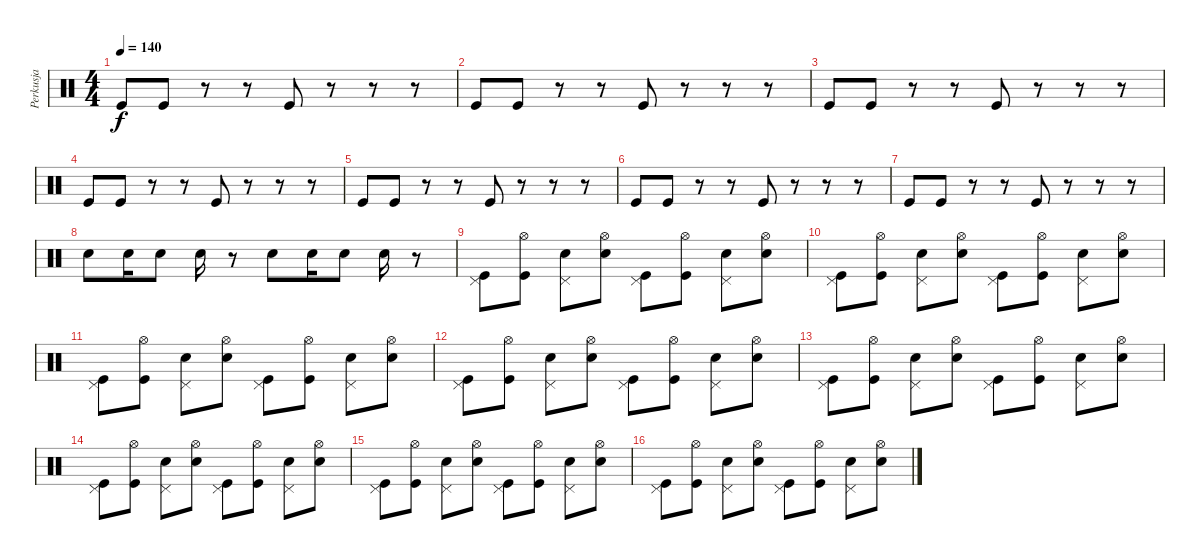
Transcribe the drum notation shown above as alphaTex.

\track ("Perkusja" "Perkusja") {instrument percussion}
\staff {score}
\articulation defaults
\ts (4 4)
\tempo 140
\clef neutral
\ks c "Kick (hit)".8{dy f} "Kick (hit)".8
r.8 r.8 "Kick (hit)".8 r.8 r.8 r.8 |
"Kick (hit)".8 "Kick (hit)".8 r.8 r.8 "Kick (hit)".8 r.8 r.8 r.8 |
"Kick (hit)".8 "Kick (hit)".8 r.8 r.8 "Kick (hit)".8 r.8 r.8 r.8 |
"Kick (hit)".8 "Kick (hit)".8 r.8 r.8 "Kick (hit)".8 r.8 r.8 r.8 |
"Kick (hit)".8 "Kick (hit)".8 r.8 r.8 "Kick (hit)".8 r.8 r.8 r.8 |
"Kick (hit)".8 "Kick (hit)".8 r.8 r.8 "Kick (hit)".8 r.8 r.8 r.8 |
"Kick (hit)".8 "Kick (hit)".8 r.8 r.8 "Kick (hit)".8 r.8 r.8 r.8 |
"Electric Snare (hit)".8 "Electric Snare (hit)".16 "Electric Snare (hit)".8 "Electric Snare (hit)".16 r.8 "Electric Snare (hit)".8 "Electric Snare (hit)".16 "Electric Snare (hit)".8 "Electric Snare (hit)".16 r.8 |
("Kick (hit)" "Pedal Hi-Hat (hit)").8 ("Kick (hit)" "Hi-Hat (open)").8 ("Electric Snare (hit)" "Pedal Hi-Hat (hit)").8 ("Electric Snare (hit)" "Hi-Hat (open)").8 ("Kick (hit)" "Pedal Hi-Hat (hit)").8 ("Kick (hit)" "Hi-Hat (open)").8 ("Electric Snare (hit)" "Pedal Hi-Hat (hit)").8 ("Electric Snare (hit)" "Hi-Hat (open)").8 |
("Kick (hit)" "Pedal Hi-Hat (hit)").8 ("Kick (hit)" "Hi-Hat (open)").8 ("Electric Snare (hit)" "Pedal Hi-Hat (hit)").8 ("Electric Snare (hit)" "Hi-Hat (open)").8 ("Kick (hit)" "Pedal Hi-Hat (hit)").8 ("Kick (hit)" "Hi-Hat (open)").8 ("Electric Snare (hit)" "Pedal Hi-Hat (hit)").8 ("Electric Snare (hit)" "Hi-Hat (open)").8 |
("Kick (hit)" "Pedal Hi-Hat (hit)").8 ("Kick (hit)" "Hi-Hat (open)").8 ("Electric Snare (hit)" "Pedal Hi-Hat (hit)").8 ("Electric Snare (hit)" "Hi-Hat (open)").8 ("Kick (hit)" "Pedal Hi-Hat (hit)").8 ("Kick (hit)" "Hi-Hat (open)").8 ("Electric Snare (hit)" "Pedal Hi-Hat (hit)").8 ("Electric Snare (hit)" "Hi-Hat (open)").8 |
("Kick (hit)" "Pedal Hi-Hat (hit)").8 ("Kick (hit)" "Hi-Hat (open)").8 ("Electric Snare (hit)" "Pedal Hi-Hat (hit)").8 ("Electric Snare (hit)" "Hi-Hat (open)").8 ("Kick (hit)" "Pedal Hi-Hat (hit)").8 ("Kick (hit)" "Hi-Hat (open)").8 ("Electric Snare (hit)" "Pedal Hi-Hat (hit)").8 ("Electric Snare (hit)" "Hi-Hat (open)").8 |
("Kick (hit)" "Pedal Hi-Hat (hit)").8 ("Kick (hit)" "Hi-Hat (open)").8 ("Electric Snare (hit)" "Pedal Hi-Hat (hit)").8 ("Electric Snare (hit)" "Hi-Hat (open)").8 ("Kick (hit)" "Pedal Hi-Hat (hit)").8 ("Kick (hit)" "Hi-Hat (open)").8 ("Electric Snare (hit)" "Pedal Hi-Hat (hit)").8 ("Electric Snare (hit)" "Hi-Hat (open)").8 |
("Kick (hit)" "Pedal Hi-Hat (hit)").8 ("Kick (hit)" "Hi-Hat (open)").8 ("Electric Snare (hit)" "Pedal Hi-Hat (hit)").8 ("Electric Snare (hit)" "Hi-Hat (open)").8 ("Kick (hit)" "Pedal Hi-Hat (hit)").8 ("Kick (hit)" "Hi-Hat (open)").8 ("Electric Snare (hit)" "Pedal Hi-Hat (hit)").8 ("Electric Snare (hit)" "Hi-Hat (open)").8 |
("Kick (hit)" "Pedal Hi-Hat (hit)").8 ("Kick (hit)" "Hi-Hat (open)").8 ("Electric Snare (hit)" "Pedal Hi-Hat (hit)").8 ("Electric Snare (hit)" "Hi-Hat (open)").8 ("Kick (hit)" "Pedal Hi-Hat (hit)").8 ("Kick (hit)" "Hi-Hat (open)").8 ("Electric Snare (hit)" "Pedal Hi-Hat (hit)").8 ("Electric Snare (hit)" "Hi-Hat (open)").8 |
("Kick (hit)" "Pedal Hi-Hat (hit)").8 ("Kick (hit)" "Hi-Hat (open)").8 ("Electric Snare (hit)" "Pedal Hi-Hat (hit)").8 ("Electric Snare (hit)" "Hi-Hat (open)").8 ("Kick (hit)" "Pedal Hi-Hat (hit)").8 ("Kick (hit)" "Hi-Hat (open)").8 ("Electric Snare (hit)" "Pedal Hi-Hat (hit)").8 ("Electric Snare (hit)" "Hi-Hat (open)").8
